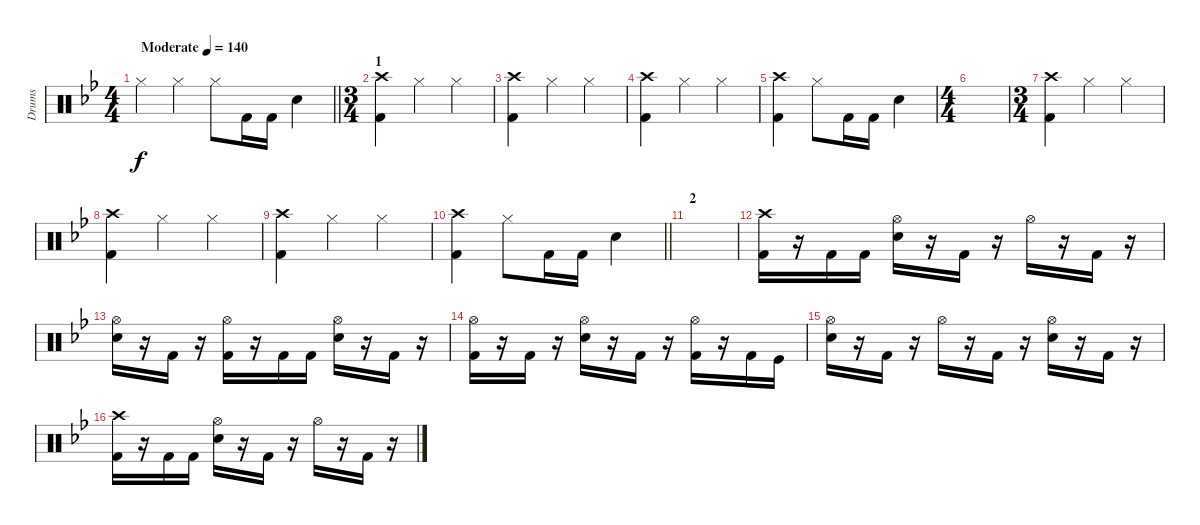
\track ("Drums" "Drums") {instrument percussion}
\staff {score}
\articulation defaults
\ts (4 4)
\tempo (140 "Moderate")
\clef neutral
\barLineRight lightlight
\ks gminor "Hi-Hat (closed)".4{dy f} "Hi-Hat (closed)".4 "Hi-Hat (closed)".8 "Kick (hit) 2".16 "Kick (hit) 2".16 "Snare (hit) 2".4
|
\ts (3 4)
\section ("" "1")
("Crash high (hit)" "Kick (hit) 2").4 "Hi-Hat (closed)".4 "Hi-Hat (closed)".4 |
("Crash high (hit)" "Kick (hit) 2").4 "Hi-Hat (closed)".4 "Hi-Hat (closed)".4 |
("Crash high (hit)" "Kick (hit) 2").4 "Hi-Hat (closed)".4 "Hi-Hat (closed)".4 |
("Crash high (hit)" "Kick (hit) 2").4 "Hi-Hat (closed)".8 "Kick (hit) 2".16 "Kick (hit) 2".16 "Snare (hit) 2".4 |
\ts (4 4)
|
\ts (3 4)
("Crash high (hit)" "Kick (hit) 2").4 "Hi-Hat (closed)".4 "Hi-Hat (closed)".4 |
("Crash high (hit)" "Kick (hit) 2").4 "Hi-Hat (closed)".4 "Hi-Hat (closed)".4 |
("Crash high (hit)" "Kick (hit) 2").4 "Hi-Hat (closed)".4 "Hi-Hat (closed)".4 |
\barLineRight lightlight
("Crash high (hit)" "Kick (hit) 2").4 "Hi-Hat (closed)".8 "Kick (hit) 2".16 "Kick (hit) 2".16 "Snare (hit) 2".4 |
\section ("" "2")
|
("Crash high (hit)" "Kick (hit) 2").16 r.16 "Kick (hit) 2".16 "Kick (hit) 2".16 ("Hi-Hat (open)" "Snare (hit) 2").16 r.16 "Kick (hit) 2".16 r.16 "Hi-Hat (open)".16 r.16 "Kick (hit) 2".16 r.16 |
("Hi-Hat (open)" "Snare (hit) 2").16 r.16 "Kick (hit) 2".16 r.16 ("Hi-Hat (open)" "Kick (hit) 2").16 r.16 "Kick (hit) 2".16 "Kick (hit) 2".16 ("Hi-Hat (open)" "Snare (hit) 2").16 r.16 "Kick (hit) 2".16 r.16 |
("Hi-Hat (open)" "Kick (hit) 2").16 r.16 "Kick (hit) 2".16 r.16 ("Hi-Hat (open)" "Snare (hit) 2").16 r.16 "Kick (hit) 2".16 r.16 ("Hi-Hat (open)" "Kick (hit) 2").16 r.16 "Kick (hit) 2".16 "Kick (hit)".16 |
("Hi-Hat (open)" "Snare (hit) 2").16 r.16 "Kick (hit) 2".16 r.16 "Hi-Hat (open)".16 r.16 "Kick (hit) 2".16 r.16 ("Hi-Hat (open)" "Snare (hit) 2").16 r.16 "Kick (hit) 2".16 r.16 |
("Crash high (hit)" "Kick (hit) 2").16 r.16 "Kick (hit) 2".16 "Kick (hit) 2".16 ("Hi-Hat (open)" "Snare (hit) 2").16 r.16 "Kick (hit) 2".16 r.16 "Hi-Hat (open)".16 r.16 "Kick (hit) 2".16 r.16
